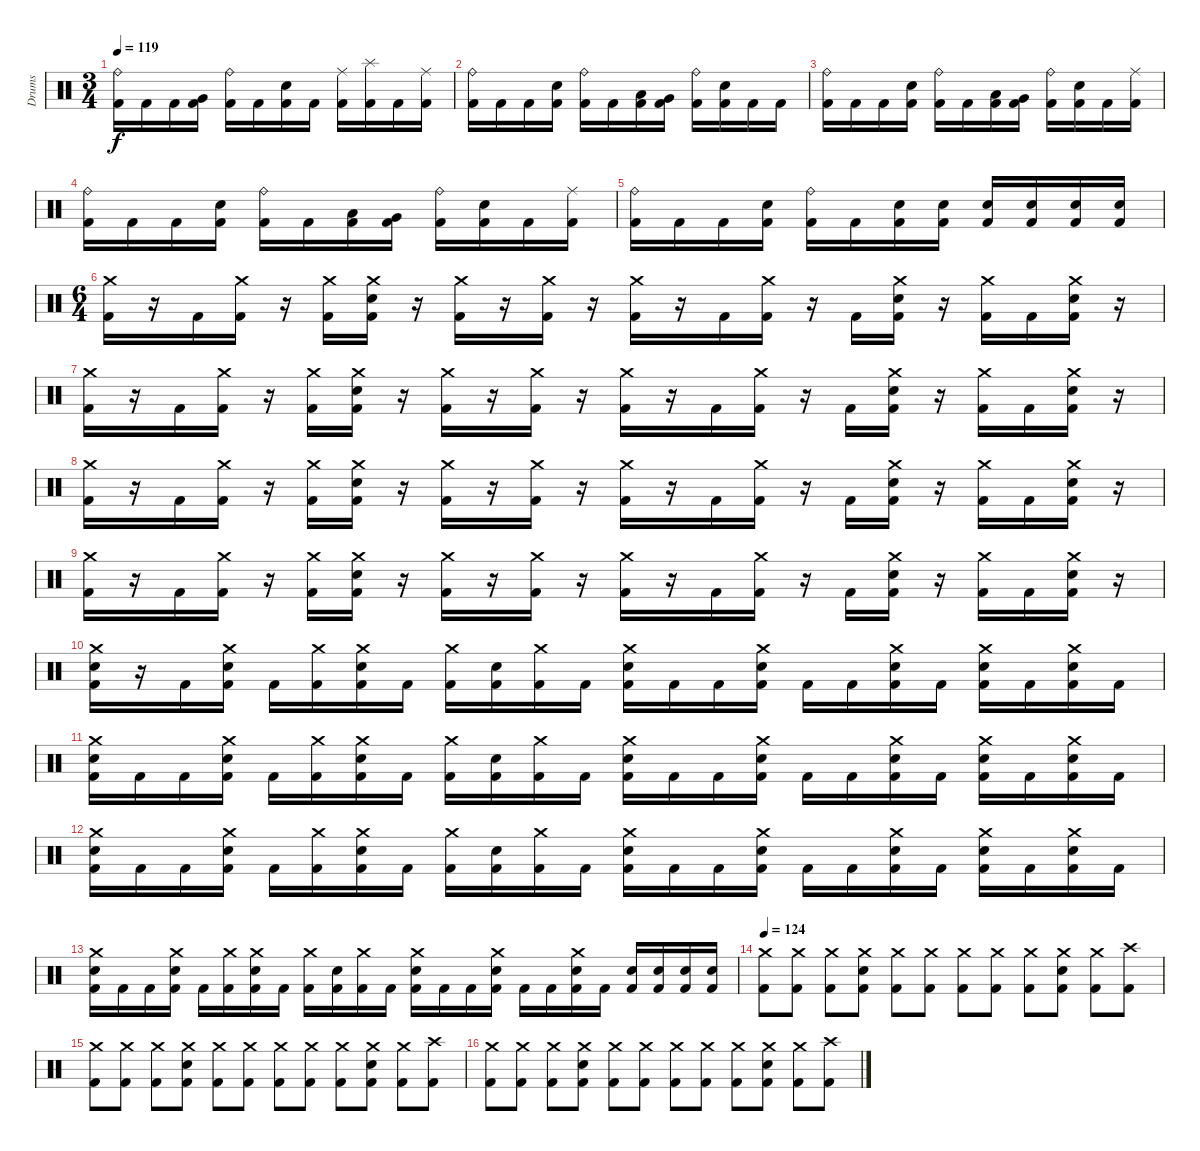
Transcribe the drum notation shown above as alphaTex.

\track ("Drums" "Drums") {instrument percussion}
\staff {score}
\articulation defaults
\ts (3 4)
\tempo 119
\clef neutral
\ks c
("Ride (bell)" "Kick (hit) 2").16{dy f} "Kick (hit) 2".16 "Kick (hit) 2".16 ("Very Low Tom (hit)" "Kick (hit) 2").16 ("Ride (bell)" "Kick (hit) 2").16 "Kick (hit) 2".16 ("Electric Snare (hit)" "Kick (hit) 2").16 "Kick (hit) 2".16 ("Ride (middle)" "Kick (hit) 2").16 ("Splash (hit)" "Kick (hit) 2").16 "Kick (hit) 2".16 ("Ride (middle)" "Kick (hit) 2").16 |
("Ride (bell)" "Kick (hit) 2").16 "Kick (hit) 2".16 "Kick (hit) 2".16 ("Electric Snare (hit)" "Kick (hit) 2").16 ("Ride (bell)" "Kick (hit) 2").16 "Kick (hit) 2".16 ("Low Tom (hit)" "Kick (hit) 2").16 ("Very Low Tom (hit)" "Kick (hit) 2").16 ("Ride (bell)" "Kick (hit) 2").16 ("Electric Snare (hit)" "Kick (hit) 2").16 "Kick (hit) 2".16 "Kick (hit) 2".16 |
("Ride (bell)" "Kick (hit) 2").16 "Kick (hit) 2".16 "Kick (hit) 2".16 ("Electric Snare (hit)" "Kick (hit) 2").16 ("Ride (bell)" "Kick (hit) 2").16 "Kick (hit) 2".16 ("Low Tom (hit)" "Kick (hit) 2").16 ("Very Low Tom (hit)" "Kick (hit) 2").16 ("Ride (bell)" "Kick (hit) 2").16 ("Electric Snare (hit)" "Kick (hit) 2").16 "Kick (hit) 2".16 ("Ride (middle)" "Kick (hit) 2").16 |
("Ride (bell)" "Kick (hit) 2").16 "Kick (hit) 2".16 "Kick (hit) 2".16 ("Electric Snare (hit)" "Kick (hit) 2").16 ("Ride (bell)" "Kick (hit) 2").16 "Kick (hit) 2".16 ("Low Tom (hit)" "Kick (hit) 2").16 ("Very Low Tom (hit)" "Kick (hit) 2").16 ("Ride (bell)" "Kick (hit) 2").16 ("Electric Snare (hit)" "Kick (hit) 2").16 "Kick (hit) 2".16 ("Ride (middle)" "Kick (hit) 2").16 |
("Ride (bell)" "Kick (hit) 2").16 "Kick (hit) 2".16 "Kick (hit) 2".16 ("Electric Snare (hit)" "Kick (hit) 2").16 ("Ride (bell)" "Kick (hit) 2").16 "Kick (hit) 2".16 ("Electric Snare (hit)" "Kick (hit) 2").16 ("Electric Snare (hit)" "Kick (hit) 2").16 ("Electric Snare (hit)" "Kick (hit) 2").16 ("Electric Snare (hit)" "Kick (hit) 2").16 ("Electric Snare (hit)" "Kick (hit) 2").16 ("Electric Snare (hit)" "Kick (hit) 2").16 |
\ts (6 4)
\section ("" "")
("Crash medium (hit)" "Kick (hit) 2").16 r.16 "Kick (hit) 2".16 ("Crash medium (hit)" "Kick (hit) 2").16 r.16 ("Crash medium (hit)" "Kick (hit) 2").16 ("Crash medium (hit)" "Electric Snare (hit)" "Kick (hit) 2").16 r.16 ("Crash medium (hit)" "Kick (hit) 2").16 r.16 ("Crash medium (hit)" "Kick (hit) 2").16 r.16 ("Crash medium (hit)" "Kick (hit) 2").16 r.16 "Kick (hit) 2".16 ("Crash medium (hit)" "Kick (hit) 2").16 r.16 "Kick (hit) 2".16 ("Crash medium (hit)" "Electric Snare (hit)" "Kick (hit) 2").16 r.16 ("Crash medium (hit)" "Kick (hit) 2").16 "Kick (hit) 2".16 ("Crash medium (hit)" "Electric Snare (hit)" "Kick (hit) 2").16 r.16 |
("Crash medium (hit)" "Kick (hit) 2").16 r.16 "Kick (hit) 2".16 ("Crash medium (hit)" "Kick (hit) 2").16 r.16 ("Crash medium (hit)" "Kick (hit) 2").16 ("Crash medium (hit)" "Electric Snare (hit)" "Kick (hit) 2").16 r.16 ("Crash medium (hit)" "Kick (hit) 2").16 r.16 ("Crash medium (hit)" "Kick (hit) 2").16 r.16 ("Crash medium (hit)" "Kick (hit) 2").16 r.16 "Kick (hit) 2".16 ("Crash medium (hit)" "Kick (hit) 2").16 r.16 "Kick (hit) 2".16 ("Crash medium (hit)" "Electric Snare (hit)" "Kick (hit) 2").16 r.16 ("Crash medium (hit)" "Kick (hit) 2").16 "Kick (hit) 2".16 ("Crash medium (hit)" "Electric Snare (hit)" "Kick (hit) 2").16 r.16 |
("Crash medium (hit)" "Kick (hit) 2").16 r.16 "Kick (hit) 2".16 ("Crash medium (hit)" "Kick (hit) 2").16 r.16 ("Crash medium (hit)" "Kick (hit) 2").16 ("Crash medium (hit)" "Electric Snare (hit)" "Kick (hit) 2").16 r.16 ("Crash medium (hit)" "Kick (hit) 2").16 r.16 ("Crash medium (hit)" "Kick (hit) 2").16 r.16 ("Crash medium (hit)" "Kick (hit) 2").16 r.16 "Kick (hit) 2".16 ("Crash medium (hit)" "Kick (hit) 2").16 r.16 "Kick (hit) 2".16 ("Crash medium (hit)" "Electric Snare (hit)" "Kick (hit) 2").16 r.16 ("Crash medium (hit)" "Kick (hit) 2").16 "Kick (hit) 2".16 ("Crash medium (hit)" "Electric Snare (hit)" "Kick (hit) 2").16 r.16 |
("Crash medium (hit)" "Kick (hit) 2").16 r.16 "Kick (hit) 2".16 ("Crash medium (hit)" "Kick (hit) 2").16 r.16 ("Crash medium (hit)" "Kick (hit) 2").16 ("Crash medium (hit)" "Electric Snare (hit)" "Kick (hit) 2").16 r.16 ("Crash medium (hit)" "Kick (hit) 2").16 r.16 ("Crash medium (hit)" "Kick (hit) 2").16 r.16 ("Crash medium (hit)" "Kick (hit) 2").16 r.16 "Kick (hit) 2".16 ("Crash medium (hit)" "Kick (hit) 2").16 r.16 "Kick (hit) 2".16 ("Crash medium (hit)" "Electric Snare (hit)" "Kick (hit) 2").16 r.16 ("Crash medium (hit)" "Kick (hit) 2").16 "Kick (hit) 2".16 ("Crash medium (hit)" "Electric Snare (hit)" "Kick (hit) 2").16 r.16 |
("Crash medium (hit)" "Electric Snare (hit)" "Kick (hit) 2").16 r.16 "Kick (hit) 2".16 ("Crash medium (hit)" "Electric Snare (hit)" "Kick (hit) 2").16 "Kick (hit) 2".16 ("Crash medium (hit)" "Kick (hit) 2").16 ("Crash medium (hit)" "Electric Snare (hit)" "Kick (hit) 2").16 "Kick (hit) 2".16 ("Crash medium (hit)" "Kick (hit) 2").16 ("Electric Snare (hit)" "Kick (hit) 2").16 ("Crash medium (hit)" "Kick (hit) 2").16 "Kick (hit) 2".16 ("Crash medium (hit)" "Electric Snare (hit)" "Kick (hit) 2").16 "Kick (hit) 2".16 "Kick (hit) 2".16 ("Crash medium (hit)" "Electric Snare (hit)" "Kick (hit) 2").16 "Kick (hit) 2".16 "Kick (hit) 2".16 ("Crash medium (hit)" "Electric Snare (hit)" "Kick (hit) 2").16 "Kick (hit) 2".16 ("Crash medium (hit)" "Electric Snare (hit)" "Kick (hit) 2").16 "Kick (hit) 2".16 ("Crash medium (hit)" "Electric Snare (hit)" "Kick (hit) 2").16 "Kick (hit) 2".16 |
("Crash medium (hit)" "Electric Snare (hit)" "Kick (hit) 2").16 "Kick (hit) 2".16 "Kick (hit) 2".16 ("Crash medium (hit)" "Electric Snare (hit)" "Kick (hit) 2").16 "Kick (hit) 2".16 ("Crash medium (hit)" "Kick (hit) 2").16 ("Crash medium (hit)" "Electric Snare (hit)" "Kick (hit) 2").16 "Kick (hit) 2".16 ("Crash medium (hit)" "Kick (hit) 2").16 ("Electric Snare (hit)" "Kick (hit) 2").16 ("Crash medium (hit)" "Kick (hit) 2").16 "Kick (hit) 2".16 ("Crash medium (hit)" "Electric Snare (hit)" "Kick (hit) 2").16 "Kick (hit) 2".16 "Kick (hit) 2".16 ("Crash medium (hit)" "Electric Snare (hit)" "Kick (hit) 2").16 "Kick (hit) 2".16 "Kick (hit) 2".16 ("Crash medium (hit)" "Electric Snare (hit)" "Kick (hit) 2").16 "Kick (hit) 2".16 ("Crash medium (hit)" "Electric Snare (hit)" "Kick (hit) 2").16 "Kick (hit) 2".16 ("Crash medium (hit)" "Electric Snare (hit)" "Kick (hit) 2").16 "Kick (hit) 2".16 |
("Crash medium (hit)" "Electric Snare (hit)" "Kick (hit) 2").16 "Kick (hit) 2".16 "Kick (hit) 2".16 ("Crash medium (hit)" "Electric Snare (hit)" "Kick (hit) 2").16 "Kick (hit) 2".16 ("Crash medium (hit)" "Kick (hit) 2").16 ("Crash medium (hit)" "Electric Snare (hit)" "Kick (hit) 2").16 "Kick (hit) 2".16 ("Crash medium (hit)" "Kick (hit) 2").16 ("Electric Snare (hit)" "Kick (hit) 2").16 ("Crash medium (hit)" "Kick (hit) 2").16 "Kick (hit) 2".16 ("Crash medium (hit)" "Electric Snare (hit)" "Kick (hit) 2").16 "Kick (hit) 2".16 "Kick (hit) 2".16 ("Crash medium (hit)" "Electric Snare (hit)" "Kick (hit) 2").16 "Kick (hit) 2".16 "Kick (hit) 2".16 ("Crash medium (hit)" "Electric Snare (hit)" "Kick (hit) 2").16 "Kick (hit) 2".16 ("Crash medium (hit)" "Electric Snare (hit)" "Kick (hit) 2").16 "Kick (hit) 2".16 ("Crash medium (hit)" "Electric Snare (hit)" "Kick (hit) 2").16 "Kick (hit) 2".16 |
("Crash medium (hit)" "Electric Snare (hit)" "Kick (hit) 2").16 "Kick (hit) 2".16 "Kick (hit) 2".16 ("Crash medium (hit)" "Electric Snare (hit)" "Kick (hit) 2").16 "Kick (hit) 2".16 ("Crash medium (hit)" "Kick (hit) 2").16 ("Crash medium (hit)" "Electric Snare (hit)" "Kick (hit) 2").16 "Kick (hit) 2".16 ("Crash medium (hit)" "Kick (hit) 2").16 ("Electric Snare (hit)" "Kick (hit) 2").16 ("Crash medium (hit)" "Kick (hit) 2").16 "Kick (hit) 2".16 ("Crash medium (hit)" "Electric Snare (hit)" "Kick (hit) 2").16 "Kick (hit) 2".16 "Kick (hit) 2".16 ("Crash medium (hit)" "Electric Snare (hit)" "Kick (hit) 2").16 "Kick (hit) 2".16 "Kick (hit) 2".16 ("Crash medium (hit)" "Electric Snare (hit)" "Kick (hit) 2").16 "Kick (hit) 2".16 ("Electric Snare (hit)" "Kick (hit) 2").16 ("Electric Snare (hit)" "Kick (hit) 2").16 ("Electric Snare (hit)" "Kick (hit) 2").16 ("Electric Snare (hit)" "Kick (hit) 2").16 |
\section ("" "")
\tempo 124
("Crash medium (hit)" "Kick (hit) 2").8 ("Crash medium (hit)" "Kick (hit) 2").8 ("Crash medium (hit)" "Kick (hit) 2").8 ("Crash medium (hit)" "Electric Snare (hit)" "Kick (hit) 2").8 ("Crash medium (hit)" "Kick (hit) 2").8 ("Crash medium (hit)" "Kick (hit) 2").8 ("Crash medium (hit)" "Kick (hit) 2").8 ("Crash medium (hit)" "Kick (hit) 2").8 ("Crash medium (hit)" "Kick (hit) 2").8 ("Crash medium (hit)" "Electric Snare (hit)" "Kick (hit) 2").8 ("Crash medium (hit)" "Kick (hit) 2").8 ("Crash high (hit)" "Kick (hit) 2").8 |
("Crash medium (hit)" "Kick (hit) 2").8 ("Crash medium (hit)" "Kick (hit) 2").8 ("Crash medium (hit)" "Kick (hit) 2").8 ("Crash medium (hit)" "Electric Snare (hit)" "Kick (hit) 2").8 ("Crash medium (hit)" "Kick (hit) 2").8 ("Crash medium (hit)" "Kick (hit) 2").8 ("Crash medium (hit)" "Kick (hit) 2").8 ("Crash medium (hit)" "Kick (hit) 2").8 ("Crash medium (hit)" "Kick (hit) 2").8 ("Crash medium (hit)" "Electric Snare (hit)" "Kick (hit) 2").8 ("Crash medium (hit)" "Kick (hit) 2").8 ("Crash high (hit)" "Kick (hit) 2").8 |
("Crash medium (hit)" "Kick (hit) 2").8 ("Crash medium (hit)" "Kick (hit) 2").8 ("Crash medium (hit)" "Kick (hit) 2").8 ("Crash medium (hit)" "Electric Snare (hit)" "Kick (hit) 2").8 ("Crash medium (hit)" "Kick (hit) 2").8 ("Crash medium (hit)" "Kick (hit) 2").8 ("Crash medium (hit)" "Kick (hit) 2").8 ("Crash medium (hit)" "Kick (hit) 2").8 ("Crash medium (hit)" "Kick (hit) 2").8 ("Crash medium (hit)" "Electric Snare (hit)" "Kick (hit) 2").8 ("Crash medium (hit)" "Kick (hit) 2").8 ("Crash high (hit)" "Kick (hit) 2").8
